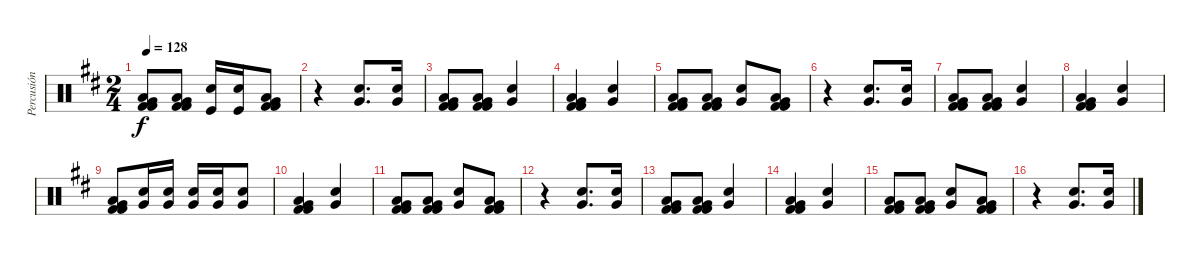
\track ("Percusión" "Percusión") {instrument percussion}
\staff {score}
\articulation defaults
\ts (2 4)
\tempo 128
\clef neutral
\ks d
("Kick (hit) 2" "Low Floor Tom (hit)" "Kick (hit) 2" "Very Low Tom (hit)").8{dy f} ("Kick (hit) 2" "Low Floor Tom (hit)" "Kick (hit) 2" "Very Low Tom (hit)").8 ("Kick (hit)" "Electric Snare (hit)").16 ("Kick (hit)" "Electric Snare (hit)").16 ("Kick (hit) 2" "Low Floor Tom (hit)" "Kick (hit) 2" "Very Low Tom (hit)").8 |
r.4 ("Electric Snare (hit)" "Very Low Tom (hit)").8{d} ("Electric Snare (hit)" "Very Low Tom (hit)").16 |
("Kick (hit) 2" "Low Floor Tom (hit)" "Kick (hit) 2" "Very Low Tom (hit)").8 ("Kick (hit) 2" "Low Floor Tom (hit)" "Kick (hit) 2" "Very Low Tom (hit)").8 ("Electric Snare (hit)" "Very Low Tom (hit)").4 |
("Kick (hit) 2" "Low Floor Tom (hit)" "Kick (hit) 2" "Very Low Tom (hit)").4 ("Electric Snare (hit)" "Very Low Tom (hit)").4 |
("Kick (hit) 2" "Low Floor Tom (hit)" "Kick (hit) 2" "Very Low Tom (hit)").8 ("Kick (hit) 2" "Low Floor Tom (hit)" "Kick (hit) 2" "Very Low Tom (hit)").8 ("Electric Snare (hit)" "Very Low Tom (hit)").8 ("Kick (hit) 2" "Low Floor Tom (hit)" "Kick (hit) 2" "Very Low Tom (hit)").8 |
r.4 ("Electric Snare (hit)" "Very Low Tom (hit)").8{d} ("Electric Snare (hit)" "Very Low Tom (hit)").16 |
("Kick (hit) 2" "Low Floor Tom (hit)" "Kick (hit) 2" "Very Low Tom (hit)").8 ("Kick (hit) 2" "Low Floor Tom (hit)" "Kick (hit) 2" "Very Low Tom (hit)").8 ("Electric Snare (hit)" "Very Low Tom (hit)").4 |
("Kick (hit) 2" "Low Floor Tom (hit)" "Kick (hit) 2" "Very Low Tom (hit)").4 ("Electric Snare (hit)" "Very Low Tom (hit)").4 |
("Kick (hit) 2" "Low Floor Tom (hit)" "Kick (hit) 2" "Very Low Tom (hit)").8 ("Electric Snare (hit)" "Very Low Tom (hit)").16 ("Very Low Tom (hit)" "Snare (hit) 2").16 ("Electric Snare (hit)" "Very Low Tom (hit)").16 ("Very Low Tom (hit)" "Snare (hit) 2").16 ("Electric Snare (hit)" "Very Low Tom (hit)").8 |
("Kick (hit) 2" "Low Floor Tom (hit)" "Kick (hit) 2" "Very Low Tom (hit)").4 ("Electric Snare (hit)" "Very Low Tom (hit)").4 |
("Kick (hit) 2" "Low Floor Tom (hit)" "Kick (hit) 2" "Very Low Tom (hit)").8 ("Kick (hit) 2" "Low Floor Tom (hit)" "Kick (hit) 2" "Very Low Tom (hit)").8 ("Electric Snare (hit)" "Very Low Tom (hit)").8 ("Kick (hit) 2" "Low Floor Tom (hit)" "Kick (hit) 2" "Very Low Tom (hit)").8 |
r.4 ("Electric Snare (hit)" "Very Low Tom (hit)").8{d} ("Electric Snare (hit)" "Very Low Tom (hit)").16 |
("Kick (hit) 2" "Low Floor Tom (hit)" "Kick (hit) 2" "Very Low Tom (hit)").8 ("Kick (hit) 2" "Low Floor Tom (hit)" "Kick (hit) 2" "Very Low Tom (hit)").8 ("Electric Snare (hit)" "Very Low Tom (hit)").4 |
("Kick (hit) 2" "Low Floor Tom (hit)" "Kick (hit) 2" "Very Low Tom (hit)").4 ("Electric Snare (hit)" "Very Low Tom (hit)").4 |
("Kick (hit) 2" "Low Floor Tom (hit)" "Kick (hit) 2" "Very Low Tom (hit)").8 ("Kick (hit) 2" "Low Floor Tom (hit)" "Kick (hit) 2" "Very Low Tom (hit)").8 ("Electric Snare (hit)" "Very Low Tom (hit)").8 ("Kick (hit) 2" "Low Floor Tom (hit)" "Kick (hit) 2" "Very Low Tom (hit)").8 |
r.4 ("Electric Snare (hit)" "Very Low Tom (hit)").8{d} ("Electric Snare (hit)" "Very Low Tom (hit)").16
